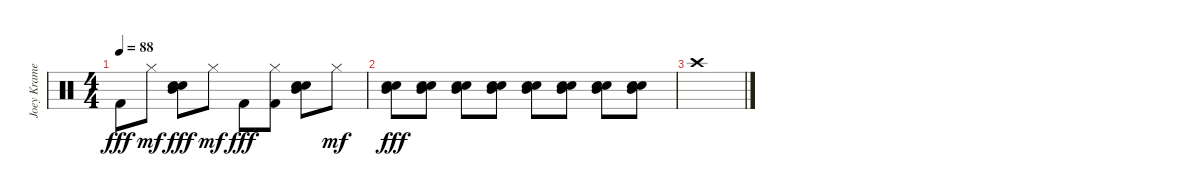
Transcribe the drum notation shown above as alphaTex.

\track ("Joey Kramer" "Joey Krame") {instrument percussion}
\staff {score}
\articulation defaults
\ts (4 4)
\tempo 88
\clef neutral
\ks c "Kick (hit) 2".8{dy fff} "Hi-Hat (closed)".8{dy mf}
("Snare (hit) 2" "Electric Snare (hit)" "Mid Tom (hit)").8{dy fff} "Hi-Hat (closed)".8{dy mf} "Kick (hit) 2".8{dy fff} ("Hi-Hat (closed)" "Kick (hit) 2").8 ("Snare (hit) 2" "Electric Snare (hit)" "Mid Tom (hit)").8 "Hi-Hat (closed)".8{dy mf} |
("Mid Tom (hit)" "Electric Snare (hit)" "Snare (hit) 2").8{dy fff} ("Mid Tom (hit)" "Electric Snare (hit)" "Snare (hit) 2").8 ("Mid Tom (hit)" "Electric Snare (hit)" "Snare (hit) 2").8 ("Mid Tom (hit)" "Electric Snare (hit)" "Snare (hit) 2").8 ("Mid Tom (hit)" "Electric Snare (hit)" "Snare (hit) 2").8 ("Mid Tom (hit)" "Electric Snare (hit)" "Snare (hit) 2").8 ("Mid Tom (hit)" "Electric Snare (hit)" "Snare (hit) 2").8 ("Mid Tom (hit)" "Electric Snare (hit)" "Snare (hit) 2").8 |
"Crash high (hit)".1
